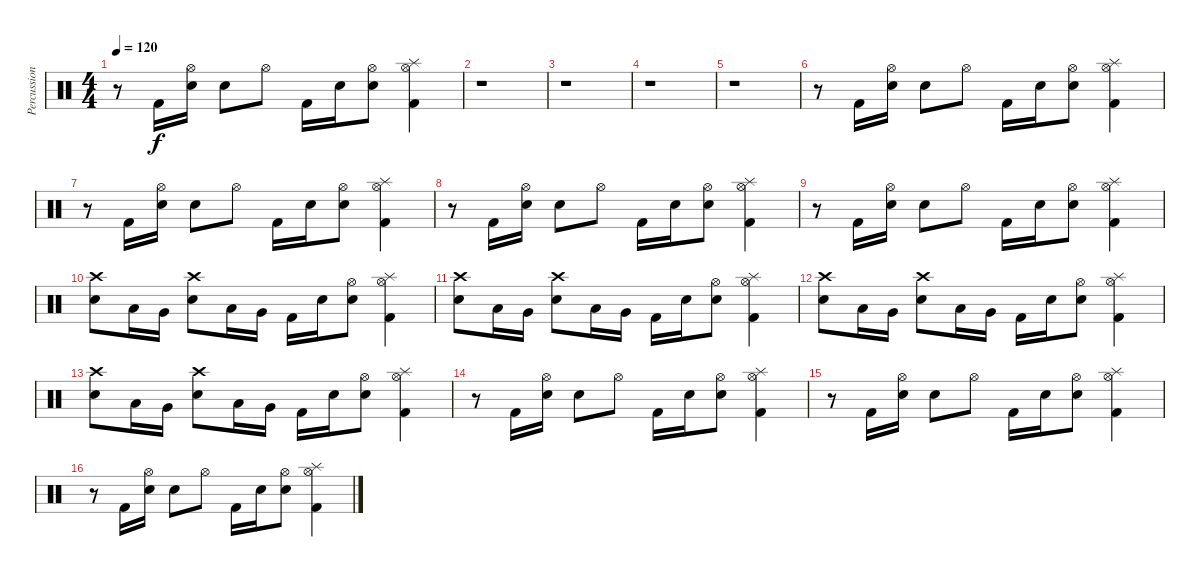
\track ("Percussion" "Percussion") {instrument percussion}
\staff {score}
\articulation defaults
\ts (4 4)
\tempo 120
\clef neutral
\ks c
r.8{dy f} "Kick (hit) 2".16 ("Hi-Hat (open)" "Snare (hit) 2").16 "Snare (hit) 2".8 "Hi-Hat (open)".8 "Kick (hit) 2".16 "Snare (hit) 2".16 ("Hi-Hat (open)" "Snare (hit) 2").8 ("Splash (hit)" "Hi-Hat (open)" "Kick (hit) 2").4 |
r.1 |
r.1 |
r.1 |
r.1 |
r.8 "Kick (hit) 2".16 ("Hi-Hat (open)" "Snare (hit) 2").16 "Snare (hit) 2".8 "Hi-Hat (open)".8 "Kick (hit) 2".16 "Snare (hit) 2".16 ("Hi-Hat (open)" "Snare (hit) 2").8 ("Splash (hit)" "Hi-Hat (open)" "Kick (hit) 2").4 |
r.8 "Kick (hit) 2".16 ("Hi-Hat (open)" "Snare (hit) 2").16 "Snare (hit) 2".8 "Hi-Hat (open)".8 "Kick (hit) 2".16 "Snare (hit) 2".16 ("Hi-Hat (open)" "Snare (hit) 2").8 ("Splash (hit)" "Hi-Hat (open)" "Kick (hit) 2").4 |
r.8 "Kick (hit) 2".16 ("Hi-Hat (open)" "Snare (hit) 2").16 "Snare (hit) 2".8 "Hi-Hat (open)".8 "Kick (hit) 2".16 "Snare (hit) 2".16 ("Hi-Hat (open)" "Snare (hit) 2").8 ("Splash (hit)" "Hi-Hat (open)" "Kick (hit) 2").4 |
r.8 "Kick (hit) 2".16 ("Hi-Hat (open)" "Snare (hit) 2").16 "Snare (hit) 2".8 "Hi-Hat (open)".8 "Kick (hit) 2".16 "Snare (hit) 2".16 ("Hi-Hat (open)" "Snare (hit) 2").8 ("Splash (hit)" "Hi-Hat (open)" "Kick (hit) 2").4 |
("Crash high (hit)" "Snare (hit) 2").8 "Low Floor Tom (hit)".16 "Very Low Tom (hit)".16 ("Crash high (hit)" "Snare (hit) 2").8 "Low Floor Tom (hit)".16 "Very Low Tom (hit)".16 "Kick (hit) 2".16 "Snare (hit) 2".16 ("Hi-Hat (open)" "Snare (hit) 2").8 ("Splash (hit)" "Hi-Hat (open)" "Kick (hit) 2").4 |
("Crash high (hit)" "Snare (hit) 2").8 "Low Floor Tom (hit)".16 "Very Low Tom (hit)".16 ("Crash high (hit)" "Snare (hit) 2").8 "Low Floor Tom (hit)".16 "Very Low Tom (hit)".16 "Kick (hit) 2".16 "Snare (hit) 2".16 ("Hi-Hat (open)" "Snare (hit) 2").8 ("Splash (hit)" "Hi-Hat (open)" "Kick (hit) 2").4 |
("Crash high (hit)" "Snare (hit) 2").8 "Low Floor Tom (hit)".16 "Very Low Tom (hit)".16 ("Crash high (hit)" "Snare (hit) 2").8 "Low Floor Tom (hit)".16 "Very Low Tom (hit)".16 "Kick (hit) 2".16 "Snare (hit) 2".16 ("Hi-Hat (open)" "Snare (hit) 2").8 ("Splash (hit)" "Hi-Hat (open)" "Kick (hit) 2").4 |
("Crash high (hit)" "Snare (hit) 2").8 "Low Floor Tom (hit)".16 "Very Low Tom (hit)".16 ("Crash high (hit)" "Snare (hit) 2").8 "Low Floor Tom (hit)".16 "Very Low Tom (hit)".16 "Kick (hit) 2".16 "Snare (hit) 2".16 ("Hi-Hat (open)" "Snare (hit) 2").8 ("Splash (hit)" "Hi-Hat (open)" "Kick (hit) 2").4 |
r.8 "Kick (hit) 2".16 ("Hi-Hat (open)" "Snare (hit) 2").16 "Snare (hit) 2".8 "Hi-Hat (open)".8 "Kick (hit) 2".16 "Snare (hit) 2".16 ("Hi-Hat (open)" "Snare (hit) 2").8 ("Splash (hit)" "Hi-Hat (open)" "Kick (hit) 2").4 |
r.8 "Kick (hit) 2".16 ("Hi-Hat (open)" "Snare (hit) 2").16 "Snare (hit) 2".8 "Hi-Hat (open)".8 "Kick (hit) 2".16 "Snare (hit) 2".16 ("Hi-Hat (open)" "Snare (hit) 2").8 ("Splash (hit)" "Hi-Hat (open)" "Kick (hit) 2").4 |
r.8 "Kick (hit) 2".16 ("Hi-Hat (open)" "Snare (hit) 2").16 "Snare (hit) 2".8 "Hi-Hat (open)".8 "Kick (hit) 2".16 "Snare (hit) 2".16 ("Hi-Hat (open)" "Snare (hit) 2").8 ("Splash (hit)" "Hi-Hat (open)" "Kick (hit) 2").4
